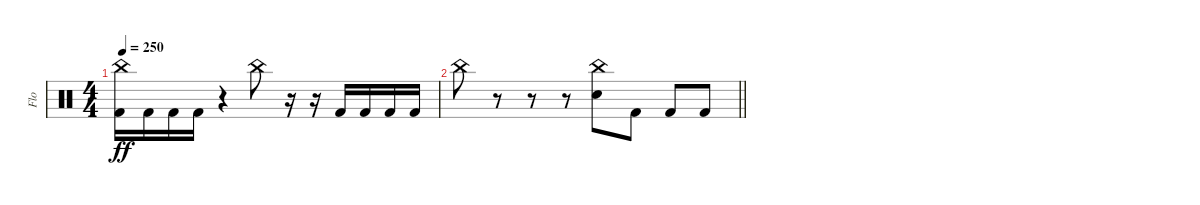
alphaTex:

\track ("Flo" "Flo") {instrument percussion}
\staff {score}
\articulation defaults
\ts (4 4)
\tempo 250
\clef neutral
\ks c
("China (hit)" "Kick (hit) 2").16{dy ff} "Kick (hit) 2".16 "Kick (hit) 2".16 "Kick (hit) 2".16 r.4 "China (hit)".8 r.16 r.16 "Kick (hit) 2".16 "Kick (hit) 2".16 "Kick (hit) 2".16 "Kick (hit) 2".16 |
\barLineRight lightlight "China (hit)".8
r.8 r.8 r.8 ("China (hit)" "Electric Snare (hit)").8 "Kick (hit) 2".8 "Kick (hit) 2".8 "Kick (hit) 2".8
